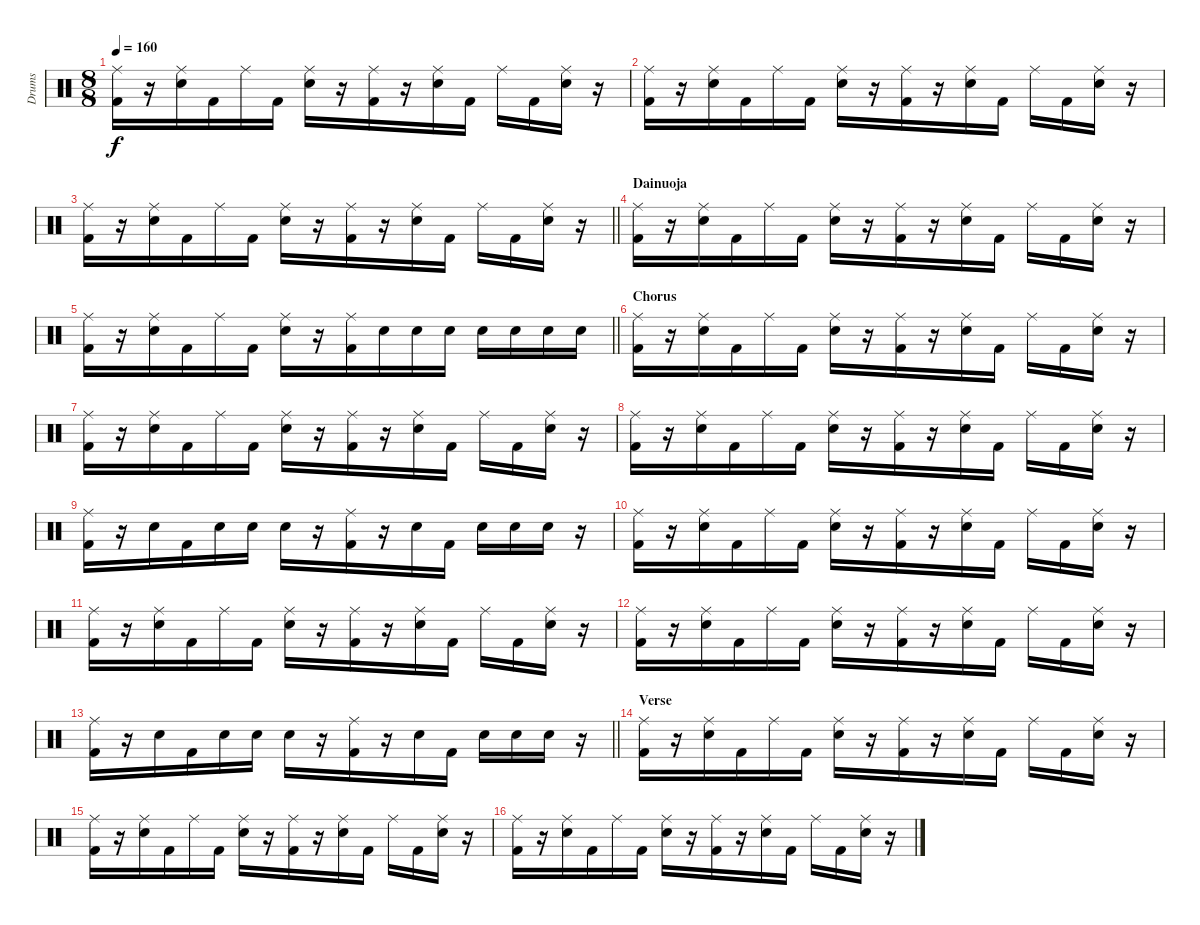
\track ("Drums" "Drums") {instrument percussion}
\staff {score}
\articulation defaults
\ts (8 8)
\tempo 160
\clef neutral
\ks c
("Ride (middle)" "Kick (hit) 2").16{dy f} r.16 ("Ride (middle)" "Snare (hit) 2").16 "Kick (hit) 2".16 "Ride (middle)".16 "Kick (hit) 2".16 ("Ride (middle)" "Snare (hit) 2").16 r.16 ("Ride (middle)" "Kick (hit) 2").16 r.16 ("Ride (middle)" "Snare (hit) 2").16 "Kick (hit) 2".16 "Ride (middle)".16 "Kick (hit) 2".16 ("Ride (middle)" "Snare (hit) 2").16 r.16 |
("Ride (middle)" "Kick (hit) 2").16 r.16 ("Ride (middle)" "Snare (hit) 2").16 "Kick (hit) 2".16 "Ride (middle)".16 "Kick (hit) 2".16 ("Ride (middle)" "Snare (hit) 2").16 r.16 ("Ride (middle)" "Kick (hit) 2").16 r.16 ("Ride (middle)" "Snare (hit) 2").16 "Kick (hit) 2".16 "Ride (middle)".16 "Kick (hit) 2".16 ("Ride (middle)" "Snare (hit) 2").16 r.16 |
\barLineRight lightlight
("Ride (middle)" "Kick (hit) 2").16 r.16 ("Ride (middle)" "Snare (hit) 2").16 "Kick (hit) 2".16 "Ride (middle)".16 "Kick (hit) 2".16 ("Ride (middle)" "Snare (hit) 2").16 r.16 ("Ride (middle)" "Kick (hit) 2").16 r.16 ("Ride (middle)" "Snare (hit) 2").16 "Kick (hit) 2".16 "Ride (middle)".16 "Kick (hit) 2".16 ("Ride (middle)" "Snare (hit) 2").16 r.16 |
\section ("" "Dainuoja")
("Ride (middle)" "Kick (hit) 2").16 r.16 ("Ride (middle)" "Snare (hit) 2").16 "Kick (hit) 2".16 "Ride (middle)".16 "Kick (hit) 2".16 ("Ride (middle)" "Snare (hit) 2").16 r.16 ("Ride (middle)" "Kick (hit) 2").16 r.16 ("Ride (middle)" "Snare (hit) 2").16 "Kick (hit) 2".16 "Ride (middle)".16 "Kick (hit) 2".16 ("Ride (middle)" "Snare (hit) 2").16 r.16 |
\barLineRight lightlight
("Ride (middle)" "Kick (hit) 2").16 r.16 ("Ride (middle)" "Snare (hit) 2").16 "Kick (hit) 2".16 "Ride (middle)".16 "Kick (hit) 2".16 ("Ride (middle)" "Snare (hit) 2").16 r.16 ("Ride (middle)" "Kick (hit) 2").16 "Snare (hit) 2".16 "Snare (hit) 2".16 "Snare (hit) 2".16 "Snare (hit) 2".16 "Snare (hit) 2".16 "Snare (hit) 2".16 "Snare (hit) 2".16 |
\section ("" "Chorus")
("Ride (middle)" "Kick (hit) 2").16 r.16 ("Ride (middle)" "Snare (hit) 2").16 "Kick (hit) 2".16 "Ride (middle)".16 "Kick (hit) 2".16 ("Ride (middle)" "Snare (hit) 2").16 r.16 ("Ride (middle)" "Kick (hit) 2").16 r.16 ("Ride (middle)" "Snare (hit) 2").16 "Kick (hit) 2".16 "Ride (middle)".16 "Kick (hit) 2".16 ("Ride (middle)" "Snare (hit) 2").16 r.16 |
("Ride (middle)" "Kick (hit) 2").16 r.16 ("Ride (middle)" "Snare (hit) 2").16 "Kick (hit) 2".16 "Ride (middle)".16 "Kick (hit) 2".16 ("Ride (middle)" "Snare (hit) 2").16 r.16 ("Ride (middle)" "Kick (hit) 2").16 r.16 ("Ride (middle)" "Snare (hit) 2").16 "Kick (hit) 2".16 "Ride (middle)".16 "Kick (hit) 2".16 ("Ride (middle)" "Snare (hit) 2").16 r.16 |
("Ride (middle)" "Kick (hit) 2").16 r.16 ("Ride (middle)" "Snare (hit) 2").16 "Kick (hit) 2".16 "Ride (middle)".16 "Kick (hit) 2".16 ("Ride (middle)" "Snare (hit) 2").16 r.16 ("Ride (middle)" "Kick (hit) 2").16 r.16 ("Ride (middle)" "Snare (hit) 2").16 "Kick (hit) 2".16 "Ride (middle)".16 "Kick (hit) 2".16 ("Ride (middle)" "Snare (hit) 2").16 r.16 |
("Ride (middle)" "Kick (hit) 2").16 r.16 "Snare (hit) 2".16 "Kick (hit) 2".16 "Snare (hit) 2".16 "Snare (hit) 2".16 "Snare (hit) 2".16 r.16 ("Ride (middle)" "Kick (hit) 2").16 r.16 "Snare (hit) 2".16 "Kick (hit) 2".16 "Snare (hit) 2".16 "Snare (hit) 2".16 "Snare (hit) 2".16 r.16 |
("Ride (middle)" "Kick (hit) 2").16 r.16 ("Ride (middle)" "Snare (hit) 2").16 "Kick (hit) 2".16 "Ride (middle)".16 "Kick (hit) 2".16 ("Ride (middle)" "Snare (hit) 2").16 r.16 ("Ride (middle)" "Kick (hit) 2").16 r.16 ("Ride (middle)" "Snare (hit) 2").16 "Kick (hit) 2".16 "Ride (middle)".16 "Kick (hit) 2".16 ("Ride (middle)" "Snare (hit) 2").16 r.16 |
("Ride (middle)" "Kick (hit) 2").16 r.16 ("Ride (middle)" "Snare (hit) 2").16 "Kick (hit) 2".16 "Ride (middle)".16 "Kick (hit) 2".16 ("Ride (middle)" "Snare (hit) 2").16 r.16 ("Ride (middle)" "Kick (hit) 2").16 r.16 ("Ride (middle)" "Snare (hit) 2").16 "Kick (hit) 2".16 "Ride (middle)".16 "Kick (hit) 2".16 ("Ride (middle)" "Snare (hit) 2").16 r.16 |
("Ride (middle)" "Kick (hit) 2").16 r.16 ("Ride (middle)" "Snare (hit) 2").16 "Kick (hit) 2".16 "Ride (middle)".16 "Kick (hit) 2".16 ("Ride (middle)" "Snare (hit) 2").16 r.16 ("Ride (middle)" "Kick (hit) 2").16 r.16 ("Ride (middle)" "Snare (hit) 2").16 "Kick (hit) 2".16 "Ride (middle)".16 "Kick (hit) 2".16 ("Ride (middle)" "Snare (hit) 2").16 r.16 |
\barLineRight lightlight
("Ride (middle)" "Kick (hit) 2").16 r.16 "Snare (hit) 2".16 "Kick (hit) 2".16 "Snare (hit) 2".16 "Snare (hit) 2".16 "Snare (hit) 2".16 r.16 ("Ride (middle)" "Kick (hit) 2").16 r.16 "Snare (hit) 2".16 "Kick (hit) 2".16 "Snare (hit) 2".16 "Snare (hit) 2".16 "Snare (hit) 2".16 r.16 |
\section ("" "Verse")
("Ride (middle)" "Kick (hit) 2").16 r.16 ("Ride (middle)" "Snare (hit) 2").16 "Kick (hit) 2".16 "Ride (middle)".16 "Kick (hit) 2".16 ("Ride (middle)" "Snare (hit) 2").16 r.16 ("Ride (middle)" "Kick (hit) 2").16 r.16 ("Ride (middle)" "Snare (hit) 2").16 "Kick (hit) 2".16 "Ride (middle)".16 "Kick (hit) 2".16 ("Ride (middle)" "Snare (hit) 2").16 r.16 |
("Ride (middle)" "Kick (hit) 2").16 r.16 ("Ride (middle)" "Snare (hit) 2").16 "Kick (hit) 2".16 "Ride (middle)".16 "Kick (hit) 2".16 ("Ride (middle)" "Snare (hit) 2").16 r.16 ("Ride (middle)" "Kick (hit) 2").16 r.16 ("Ride (middle)" "Snare (hit) 2").16 "Kick (hit) 2".16 "Ride (middle)".16 "Kick (hit) 2".16 ("Ride (middle)" "Snare (hit) 2").16 r.16 |
("Ride (middle)" "Kick (hit) 2").16 r.16 ("Ride (middle)" "Snare (hit) 2").16 "Kick (hit) 2".16 "Ride (middle)".16 "Kick (hit) 2".16 ("Ride (middle)" "Snare (hit) 2").16 r.16 ("Ride (middle)" "Kick (hit) 2").16 r.16 ("Ride (middle)" "Snare (hit) 2").16 "Kick (hit) 2".16 "Ride (middle)".16 "Kick (hit) 2".16 ("Ride (middle)" "Snare (hit) 2").16 r.16
